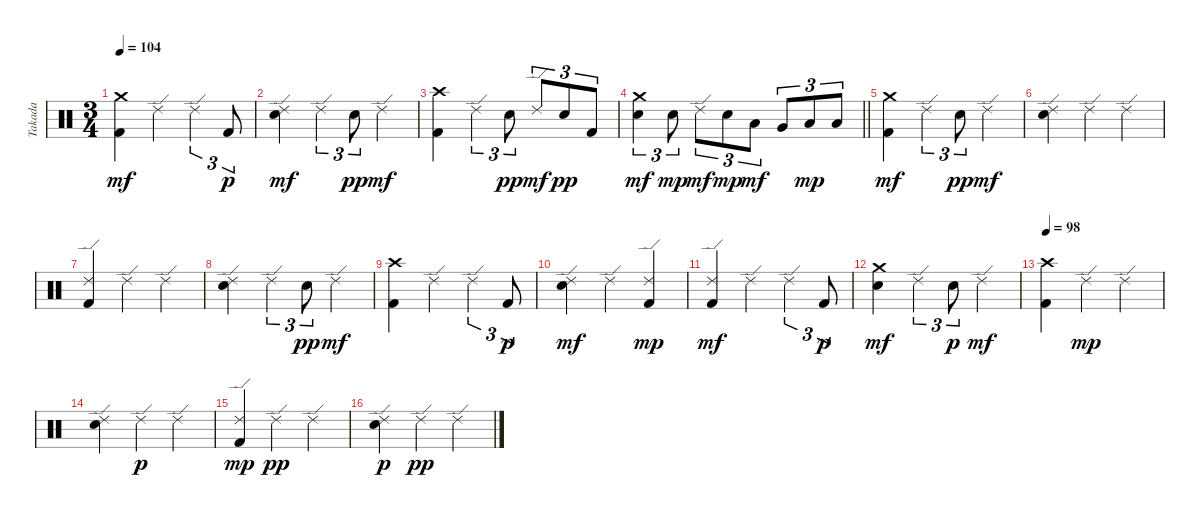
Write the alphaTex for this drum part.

\track ("Takada" "Takada") {instrument percussion}
\staff {score}
\articulation defaults
\ts (3 4)
\tempo 104
\clef neutral
\ks c
("Crash medium (hit)" "Kick (hit) 2").4{dy mf} "Ride (edge) 2".4 "Ride (edge) 2".4{tu (3 2)} "Kick (hit) 2".8{tu (3 2) dy p} |
("Ride (edge) 2" "Electric Snare (hit)").4{dy mf} "Ride (edge) 2".4{tu (3 2)} "Electric Snare (hit)".8{tu (3 2) dy pp} "Ride (edge) 2".4{dy mf} |
("Crash high (hit)" "Kick (hit) 2").4 "Ride (edge) 2".4{tu (3 2)} "Electric Snare (hit)".8{tu (3 2) dy pp} "Ride (edge) 2".8{tu (3 2) dy mf} "Electric Snare (hit)".8{tu (3 2) dy pp} "Kick (hit) 2".8{tu (3 2)} |
\barLineRight lightlight
("Crash medium (hit)" "Electric Snare (hit)").4{tu (3 2) dy mf} "Electric Snare (hit)".8{tu (3 2) dy mp} "Ride (edge) 2".8{tu (3 2) dy mf} "Electric Snare (hit)".8{tu (3 2) dy mp} "Low Tom (hit)".8{tu (3 2) dy mf} "Very Low Tom (hit)".8{tu (3 2)} "Low Floor Tom (hit)".8{tu (3 2) dy mp} "Low Floor Tom (hit)".8{tu (3 2)} |
\section ("" "")
("Crash medium (hit)" "Kick (hit) 2").4{dy mf} "Ride (edge) 2".4{tu (3 2)} "Electric Snare (hit)".8{tu (3 2) dy pp} "Ride (edge) 2".4{dy mf} |
("Ride (edge) 2" "Electric Snare (hit)").4 "Ride (edge) 2".4 "Ride (edge) 2".4 |
("Ride (edge) 2" "Kick (hit) 2").4 "Ride (edge) 2".4 "Ride (edge) 2".4 |
("Ride (edge) 2" "Electric Snare (hit)").4 "Ride (edge) 2".4{tu (3 2)} "Electric Snare (hit)".8{tu (3 2) dy pp} "Ride (edge) 2".4{dy mf} |
("Crash high (hit)" "Kick (hit) 2").4 "Ride (edge) 2".4 "Ride (edge) 2".4{tu (3 2)} "Kick (hit) 2".8{tu (3 2) dy p} |
("Ride (edge) 2" "Electric Snare (hit)").4{dy mf} "Ride (edge) 2".4 ("Ride (edge) 2" "Kick (hit) 2").4{dy mp} |
("Ride (edge) 2" "Kick (hit) 2").4{dy mf} "Ride (edge) 2".4 "Ride (edge) 2".4{tu (3 2)} "Kick (hit) 2".8{tu (3 2) dy p} |
("Crash medium (hit)" "Electric Snare (hit)").4{dy mf} "Ride (edge) 2".4{tu (3 2)} "Electric Snare (hit)".8{tu (3 2) dy p} "Ride (edge) 2".4{dy mf} |
\tempo 98
("Crash high (hit)" "Kick (hit) 2").4 "Ride (edge) 2".4{dy mp} "Ride (edge) 2".4 |
("Ride (edge) 2" "Electric Snare (hit)").4 "Ride (edge) 2".4{dy p} "Ride (edge) 2".4 |
("Ride (edge) 2" "Kick (hit) 2").4{dy mp} "Ride (edge) 2".4{dy pp} "Ride (edge) 2".4 |
("Ride (edge) 2" "Electric Snare (hit)").4{dy p} "Ride (edge) 2".4{dy pp} "Ride (edge) 2".4
